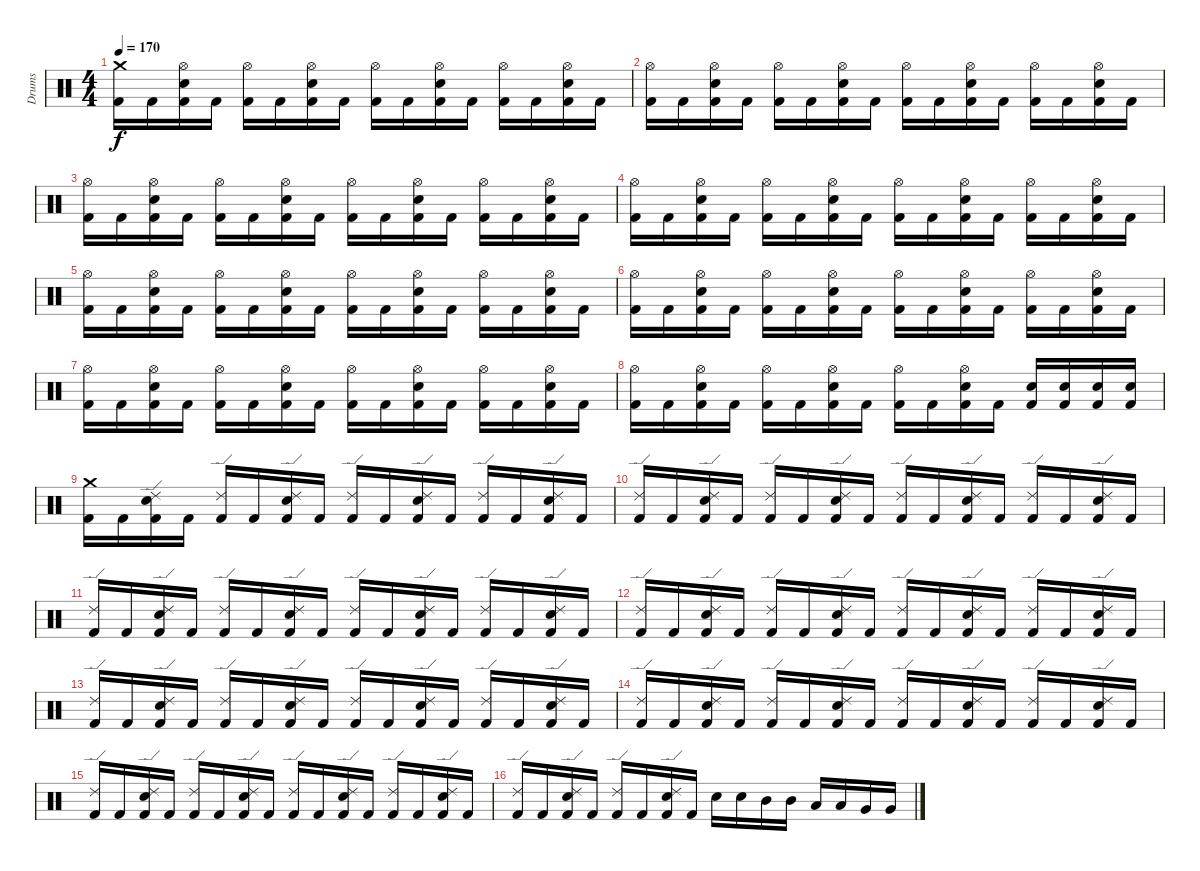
\track ("Drums" "Drums") {instrument percussion}
\staff {score}
\articulation defaults
\ts (4 4)
\tempo 170
\clef neutral
\ks c
("Crash medium (hit)" "Kick (hit) 2").16{dy f} "Kick (hit) 2".16 ("Hi-Hat (open)" "Snare (hit) 2" "Kick (hit) 2").16 "Kick (hit) 2".16 ("Hi-Hat (open)" "Kick (hit) 2").16 "Kick (hit) 2".16 ("Hi-Hat (open)" "Snare (hit) 2" "Kick (hit) 2").16 "Kick (hit) 2".16 ("Hi-Hat (open)" "Kick (hit) 2").16 "Kick (hit) 2".16 ("Hi-Hat (open)" "Snare (hit) 2" "Kick (hit) 2").16 "Kick (hit) 2".16 ("Hi-Hat (open)" "Kick (hit) 2").16 "Kick (hit) 2".16 ("Hi-Hat (open)" "Snare (hit) 2" "Kick (hit) 2").16 "Kick (hit) 2".16 |
("Hi-Hat (open)" "Kick (hit) 2").16 "Kick (hit) 2".16 ("Hi-Hat (open)" "Snare (hit) 2" "Kick (hit) 2").16 "Kick (hit) 2".16 ("Hi-Hat (open)" "Kick (hit) 2").16 "Kick (hit) 2".16 ("Hi-Hat (open)" "Snare (hit) 2" "Kick (hit) 2").16 "Kick (hit) 2".16 ("Hi-Hat (open)" "Kick (hit) 2").16 "Kick (hit) 2".16 ("Hi-Hat (open)" "Snare (hit) 2" "Kick (hit) 2").16 "Kick (hit) 2".16 ("Hi-Hat (open)" "Kick (hit) 2").16 "Kick (hit) 2".16 ("Hi-Hat (open)" "Snare (hit) 2" "Kick (hit) 2").16 "Kick (hit) 2".16 |
("Hi-Hat (open)" "Kick (hit) 2").16 "Kick (hit) 2".16 ("Hi-Hat (open)" "Snare (hit) 2" "Kick (hit) 2").16 "Kick (hit) 2".16 ("Hi-Hat (open)" "Kick (hit) 2").16 "Kick (hit) 2".16 ("Hi-Hat (open)" "Snare (hit) 2" "Kick (hit) 2").16 "Kick (hit) 2".16 ("Hi-Hat (open)" "Kick (hit) 2").16 "Kick (hit) 2".16 ("Hi-Hat (open)" "Snare (hit) 2" "Kick (hit) 2").16 "Kick (hit) 2".16 ("Hi-Hat (open)" "Kick (hit) 2").16 "Kick (hit) 2".16 ("Hi-Hat (open)" "Snare (hit) 2" "Kick (hit) 2").16 "Kick (hit) 2".16 |
("Hi-Hat (open)" "Kick (hit) 2").16 "Kick (hit) 2".16 ("Hi-Hat (open)" "Snare (hit) 2" "Kick (hit) 2").16 "Kick (hit) 2".16 ("Hi-Hat (open)" "Kick (hit) 2").16 "Kick (hit) 2".16 ("Hi-Hat (open)" "Snare (hit) 2" "Kick (hit) 2").16 "Kick (hit) 2".16 ("Hi-Hat (open)" "Kick (hit) 2").16 "Kick (hit) 2".16 ("Hi-Hat (open)" "Snare (hit) 2" "Kick (hit) 2").16 "Kick (hit) 2".16 ("Hi-Hat (open)" "Kick (hit) 2").16 "Kick (hit) 2".16 ("Hi-Hat (open)" "Snare (hit) 2" "Kick (hit) 2").16 "Kick (hit) 2".16 |
("Hi-Hat (open)" "Kick (hit) 2").16 "Kick (hit) 2".16 ("Hi-Hat (open)" "Snare (hit) 2" "Kick (hit) 2").16 "Kick (hit) 2".16 ("Hi-Hat (open)" "Kick (hit) 2").16 "Kick (hit) 2".16 ("Hi-Hat (open)" "Snare (hit) 2" "Kick (hit) 2").16 "Kick (hit) 2".16 ("Hi-Hat (open)" "Kick (hit) 2").16 "Kick (hit) 2".16 ("Hi-Hat (open)" "Snare (hit) 2" "Kick (hit) 2").16 "Kick (hit) 2".16 ("Hi-Hat (open)" "Kick (hit) 2").16 "Kick (hit) 2".16 ("Hi-Hat (open)" "Snare (hit) 2" "Kick (hit) 2").16 "Kick (hit) 2".16 |
("Hi-Hat (open)" "Kick (hit) 2").16 "Kick (hit) 2".16 ("Hi-Hat (open)" "Snare (hit) 2" "Kick (hit) 2").16 "Kick (hit) 2".16 ("Hi-Hat (open)" "Kick (hit) 2").16 "Kick (hit) 2".16 ("Hi-Hat (open)" "Snare (hit) 2" "Kick (hit) 2").16 "Kick (hit) 2".16 ("Hi-Hat (open)" "Kick (hit) 2").16 "Kick (hit) 2".16 ("Hi-Hat (open)" "Snare (hit) 2" "Kick (hit) 2").16 "Kick (hit) 2".16 ("Hi-Hat (open)" "Kick (hit) 2").16 "Kick (hit) 2".16 ("Hi-Hat (open)" "Snare (hit) 2" "Kick (hit) 2").16 "Kick (hit) 2".16 |
("Hi-Hat (open)" "Kick (hit) 2").16 "Kick (hit) 2".16 ("Hi-Hat (open)" "Snare (hit) 2" "Kick (hit) 2").16 "Kick (hit) 2".16 ("Hi-Hat (open)" "Kick (hit) 2").16 "Kick (hit) 2".16 ("Hi-Hat (open)" "Snare (hit) 2" "Kick (hit) 2").16 "Kick (hit) 2".16 ("Hi-Hat (open)" "Kick (hit) 2").16 "Kick (hit) 2".16 ("Hi-Hat (open)" "Snare (hit) 2" "Kick (hit) 2").16 "Kick (hit) 2".16 ("Hi-Hat (open)" "Kick (hit) 2").16 "Kick (hit) 2".16 ("Hi-Hat (open)" "Snare (hit) 2" "Kick (hit) 2").16 "Kick (hit) 2".16 |
("Hi-Hat (open)" "Kick (hit) 2").16 "Kick (hit) 2".16 ("Hi-Hat (open)" "Snare (hit) 2" "Kick (hit) 2").16 "Kick (hit) 2".16 ("Hi-Hat (open)" "Kick (hit) 2").16 "Kick (hit) 2".16 ("Hi-Hat (open)" "Snare (hit) 2" "Kick (hit) 2").16 "Kick (hit) 2".16 ("Hi-Hat (open)" "Kick (hit) 2").16 "Kick (hit) 2".16 ("Hi-Hat (open)" "Snare (hit) 2" "Kick (hit) 2").16 "Kick (hit) 2".16 ("Snare (hit) 2" "Kick (hit) 2").16 ("Snare (hit) 2" "Kick (hit) 2").16 ("Snare (hit) 2" "Kick (hit) 2").16 ("Snare (hit) 2" "Kick (hit) 2").16 |
("Crash medium (hit)" "Kick (hit) 2").16 "Kick (hit) 2".16 ("Ride (edge) 2" "Snare (hit) 2" "Kick (hit) 2").16 "Kick (hit) 2".16 ("Ride (edge) 2" "Kick (hit) 2").16 "Kick (hit) 2".16 ("Ride (edge) 2" "Snare (hit) 2" "Kick (hit) 2").16 "Kick (hit) 2".16 ("Ride (edge) 2" "Kick (hit) 2").16 "Kick (hit) 2".16 ("Ride (edge) 2" "Snare (hit) 2" "Kick (hit) 2").16 "Kick (hit) 2".16 ("Ride (edge) 2" "Kick (hit) 2").16 "Kick (hit) 2".16 ("Ride (edge) 2" "Snare (hit) 2" "Kick (hit) 2").16 "Kick (hit) 2".16 |
("Ride (edge) 2" "Kick (hit) 2").16 "Kick (hit) 2".16 ("Ride (edge) 2" "Snare (hit) 2" "Kick (hit) 2").16 "Kick (hit) 2".16 ("Ride (edge) 2" "Kick (hit) 2").16 "Kick (hit) 2".16 ("Ride (edge) 2" "Snare (hit) 2" "Kick (hit) 2").16 "Kick (hit) 2".16 ("Ride (edge) 2" "Kick (hit) 2").16 "Kick (hit) 2".16 ("Ride (edge) 2" "Snare (hit) 2" "Kick (hit) 2").16 "Kick (hit) 2".16 ("Ride (edge) 2" "Kick (hit) 2").16 "Kick (hit) 2".16 ("Ride (edge) 2" "Snare (hit) 2" "Kick (hit) 2").16 "Kick (hit) 2".16 |
("Ride (edge) 2" "Kick (hit) 2").16 "Kick (hit) 2".16 ("Ride (edge) 2" "Snare (hit) 2" "Kick (hit) 2").16 "Kick (hit) 2".16 ("Ride (edge) 2" "Kick (hit) 2").16 "Kick (hit) 2".16 ("Ride (edge) 2" "Snare (hit) 2" "Kick (hit) 2").16 "Kick (hit) 2".16 ("Ride (edge) 2" "Kick (hit) 2").16 "Kick (hit) 2".16 ("Ride (edge) 2" "Snare (hit) 2" "Kick (hit) 2").16 "Kick (hit) 2".16 ("Ride (edge) 2" "Kick (hit) 2").16 "Kick (hit) 2".16 ("Ride (edge) 2" "Snare (hit) 2" "Kick (hit) 2").16 "Kick (hit) 2".16 |
("Ride (edge) 2" "Kick (hit) 2").16 "Kick (hit) 2".16 ("Ride (edge) 2" "Snare (hit) 2" "Kick (hit) 2").16 "Kick (hit) 2".16 ("Ride (edge) 2" "Kick (hit) 2").16 "Kick (hit) 2".16 ("Ride (edge) 2" "Snare (hit) 2" "Kick (hit) 2").16 "Kick (hit) 2".16 ("Ride (edge) 2" "Kick (hit) 2").16 "Kick (hit) 2".16 ("Ride (edge) 2" "Snare (hit) 2" "Kick (hit) 2").16 "Kick (hit) 2".16 ("Ride (edge) 2" "Kick (hit) 2").16 "Kick (hit) 2".16 ("Ride (edge) 2" "Snare (hit) 2" "Kick (hit) 2").16 "Kick (hit) 2".16 |
("Ride (edge) 2" "Kick (hit) 2").16 "Kick (hit) 2".16 ("Ride (edge) 2" "Snare (hit) 2" "Kick (hit) 2").16 "Kick (hit) 2".16 ("Ride (edge) 2" "Kick (hit) 2").16 "Kick (hit) 2".16 ("Ride (edge) 2" "Snare (hit) 2" "Kick (hit) 2").16 "Kick (hit) 2".16 ("Ride (edge) 2" "Kick (hit) 2").16 "Kick (hit) 2".16 ("Ride (edge) 2" "Snare (hit) 2" "Kick (hit) 2").16 "Kick (hit) 2".16 ("Ride (edge) 2" "Kick (hit) 2").16 "Kick (hit) 2".16 ("Ride (edge) 2" "Snare (hit) 2" "Kick (hit) 2").16 "Kick (hit) 2".16 |
("Ride (edge) 2" "Kick (hit) 2").16 "Kick (hit) 2".16 ("Ride (edge) 2" "Snare (hit) 2" "Kick (hit) 2").16 "Kick (hit) 2".16 ("Ride (edge) 2" "Kick (hit) 2").16 "Kick (hit) 2".16 ("Ride (edge) 2" "Snare (hit) 2" "Kick (hit) 2").16 "Kick (hit) 2".16 ("Ride (edge) 2" "Kick (hit) 2").16 "Kick (hit) 2".16 ("Ride (edge) 2" "Snare (hit) 2" "Kick (hit) 2").16 "Kick (hit) 2".16 ("Ride (edge) 2" "Kick (hit) 2").16 "Kick (hit) 2".16 ("Ride (edge) 2" "Snare (hit) 2" "Kick (hit) 2").16 "Kick (hit) 2".16 |
("Ride (edge) 2" "Kick (hit) 2").16 "Kick (hit) 2".16 ("Ride (edge) 2" "Snare (hit) 2" "Kick (hit) 2").16 "Kick (hit) 2".16 ("Ride (edge) 2" "Kick (hit) 2").16 "Kick (hit) 2".16 ("Ride (edge) 2" "Snare (hit) 2" "Kick (hit) 2").16 "Kick (hit) 2".16 ("Ride (edge) 2" "Kick (hit) 2").16 "Kick (hit) 2".16 ("Ride (edge) 2" "Snare (hit) 2" "Kick (hit) 2").16 "Kick (hit) 2".16 ("Ride (edge) 2" "Kick (hit) 2").16 "Kick (hit) 2".16 ("Ride (edge) 2" "Snare (hit) 2" "Kick (hit) 2").16 "Kick (hit) 2".16 |
("Ride (edge) 2" "Kick (hit) 2").16 "Kick (hit) 2".16 ("Ride (edge) 2" "Snare (hit) 2" "Kick (hit) 2").16 "Kick (hit) 2".16 ("Ride (edge) 2" "Kick (hit) 2").16 "Kick (hit) 2".16 ("Ride (edge) 2" "Snare (hit) 2" "Kick (hit) 2").16 "Kick (hit) 2".16 "Snare (hit) 2".16 "Snare (hit) 2".16 "Mid Tom (hit)".16 "Mid Tom (hit)".16 "Low Tom (hit)".16 "Low Tom (hit)".16 "Very Low Tom (hit)".16 "Very Low Tom (hit)".16
